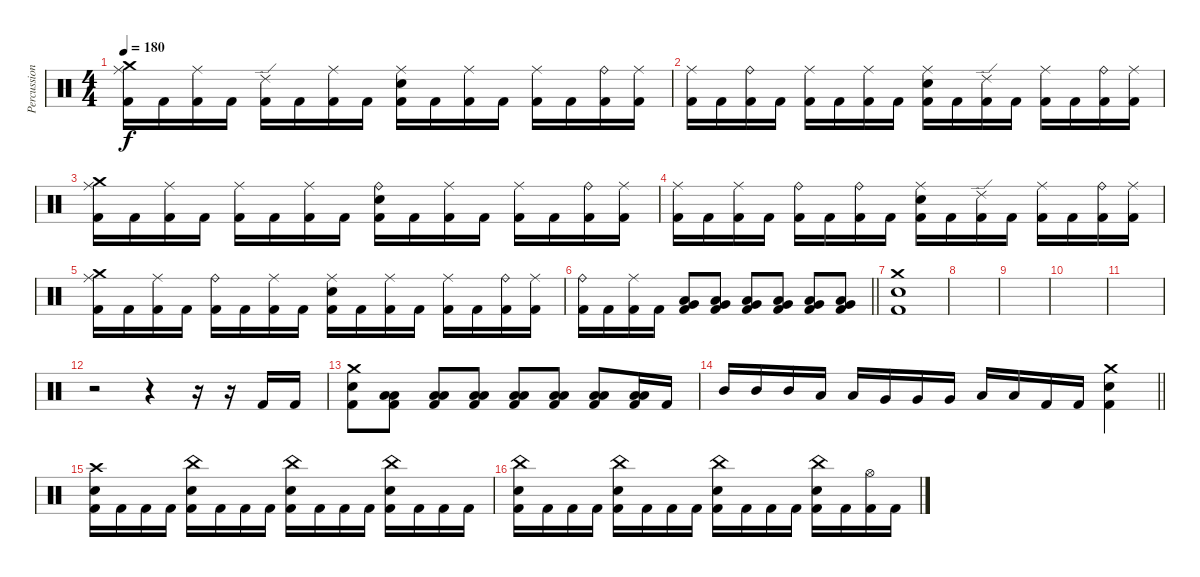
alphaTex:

\track ("Percussions" "Percussion") {instrument percussion}
\staff {score}
\articulation defaults
\ts (4 4)
\tempo 180
\clef neutral
\ks c
("Ride (middle)" "Crash medium (hit)" "Kick (hit) 2").16{dy f} "Kick (hit) 2".16 ("Ride (middle)" "Kick (hit) 2").16 "Kick (hit) 2".16 ("Ride (edge) 2" "Kick (hit) 2").16 "Kick (hit) 2".16 ("Ride (middle)" "Kick (hit) 2").16 "Kick (hit) 2".16 ("Ride (middle)" "Electric Snare (hit)" "Kick (hit) 2").16 "Kick (hit) 2".16 ("Ride (middle)" "Kick (hit) 2").16 "Kick (hit) 2".16 ("Ride (middle)" "Kick (hit) 2").16 "Kick (hit) 2".16 ("Ride (bell)" "Kick (hit) 2").16 ("Ride (middle)" "Kick (hit) 2").16 |
("Ride (middle)" "Kick (hit) 2").16 "Kick (hit) 2".16 ("Ride (bell)" "Kick (hit) 2").16 "Kick (hit) 2".16 ("Ride (middle)" "Kick (hit) 2").16 "Kick (hit) 2".16 ("Ride (middle)" "Kick (hit) 2").16 "Kick (hit) 2".16 ("Ride (middle)" "Electric Snare (hit)" "Kick (hit) 2").16 "Kick (hit) 2".16 ("Ride (edge) 2" "Kick (hit) 2").16 "Kick (hit) 2".16 ("Ride (middle)" "Kick (hit) 2").16 "Kick (hit) 2".16 ("Ride (bell)" "Kick (hit) 2").16 ("Ride (middle)" "Kick (hit) 2").16 |
("Ride (middle)" "Crash medium (hit)" "Kick (hit) 2").16 "Kick (hit) 2".16 ("Ride (middle)" "Kick (hit) 2").16 "Kick (hit) 2".16 ("Ride (middle)" "Kick (hit) 2").16 "Kick (hit) 2".16 ("Ride (middle)" "Kick (hit) 2").16 "Kick (hit) 2".16 ("Ride (bell)" "Electric Snare (hit)" "Kick (hit) 2").16 "Kick (hit) 2".16 ("Ride (middle)" "Kick (hit) 2").16 "Kick (hit) 2".16 ("Ride (middle)" "Kick (hit) 2").16 "Kick (hit) 2".16 ("Ride (bell)" "Kick (hit) 2").16 ("Ride (middle)" "Kick (hit) 2").16 |
("Ride (middle)" "Kick (hit) 2").16 "Kick (hit) 2".16 ("Ride (middle)" "Kick (hit) 2").16 "Kick (hit) 2".16 ("Ride (bell)" "Kick (hit) 2").16 "Kick (hit) 2".16 ("Ride (bell)" "Kick (hit) 2").16 "Kick (hit) 2".16 ("Ride (middle)" "Electric Snare (hit)" "Kick (hit) 2").16 "Kick (hit) 2".16 ("Ride (edge) 2" "Kick (hit) 2").16 "Kick (hit) 2".16 ("Ride (middle)" "Kick (hit) 2").16 "Kick (hit) 2".16 ("Ride (bell)" "Kick (hit) 2").16 ("Ride (middle)" "Kick (hit) 2").16 |
("Ride (middle)" "Crash medium (hit)" "Kick (hit) 2").16 "Kick (hit) 2".16 ("Ride (middle)" "Kick (hit) 2").16 "Kick (hit) 2".16 ("Ride (bell)" "Kick (hit) 2").16 "Kick (hit) 2".16 ("Ride (middle)" "Kick (hit) 2").16 "Kick (hit) 2".16 ("Ride (middle)" "Electric Snare (hit)" "Kick (hit) 2").16 "Kick (hit) 2".16 ("Ride (middle)" "Kick (hit) 2").16 "Kick (hit) 2".16 ("Ride (middle)" "Kick (hit) 2").16 "Kick (hit) 2".16 ("Ride (bell)" "Kick (hit) 2").16 ("Ride (middle)" "Kick (hit) 2").16 |
\barLineRight lightlight
("Ride (bell)" "Kick (hit) 2").16 "Kick (hit) 2".16 ("Ride (middle)" "Kick (hit) 2").16 "Kick (hit) 2".16 ("Low Tom (hit)" "Very Low Tom (hit)" "Kick (hit) 2").8 ("Low Tom (hit)" "Very Low Tom (hit)" "Kick (hit) 2").8 ("Low Tom (hit)" "Very Low Tom (hit)" "Kick (hit) 2").8 ("Low Tom (hit)" "Very Low Tom (hit)" "Kick (hit) 2").8 ("Low Tom (hit)" "Very Low Tom (hit)" "Kick (hit) 2").8 ("Low Tom (hit)" "Very Low Tom (hit)" "Kick (hit) 2").8 |
("Crash medium (hit)" "Electric Snare (hit)" "Kick (hit) 2").1 |
|
|
|
|
r.2 r.4 r.16 r.16 "Kick (hit) 2".16 "Kick (hit) 2".16 |
("Crash medium (hit)" "Electric Snare (hit)" "Kick (hit) 2").8 ("Low Tom (hit)" "Low Floor Tom (hit)" "Kick (hit) 2").8 ("Low Tom (hit)" "Low Floor Tom (hit)" "Kick (hit) 2").8 ("Low Tom (hit)" "Low Floor Tom (hit)" "Kick (hit) 2").8 ("Low Tom (hit)" "Low Floor Tom (hit)" "Kick (hit) 2").8 ("Low Tom (hit)" "Low Floor Tom (hit)" "Kick (hit) 2").8 ("Low Tom (hit)" "Low Floor Tom (hit)" "Kick (hit) 2").8 ("Low Tom (hit)" "Low Floor Tom (hit)" "Kick (hit) 2").16 "Kick (hit) 2".16 |
\barLineRight lightlight "Mid Tom (hit)".16 "Mid Tom (hit)".16 "Mid Tom (hit)".16 "Low Tom (hit)".16 "Low Tom (hit)".16 "Very Low Tom (hit)".16 "Very Low Tom (hit)".16 "Very Low Tom (hit)".16 "Low Floor Tom (hit)".16 "Low Floor Tom (hit)".16 "Kick (hit) 2".16 "Kick (hit) 2".16
("Crash medium (hit)" "Electric Snare (hit)" "Kick (hit) 2").4 |
("Crash high (hit)" "Electric Snare (hit)" "Kick (hit) 2").16 "Kick (hit) 2".16 "Kick (hit) 2".16 "Kick (hit) 2".16 ("China (hit)" "Electric Snare (hit)" "Kick (hit) 2").16 "Kick (hit) 2".16 "Kick (hit) 2".16 "Kick (hit) 2".16 ("China (hit)" "Electric Snare (hit)" "Kick (hit) 2").16 "Kick (hit) 2".16 "Kick (hit) 2".16 "Kick (hit) 2".16 ("China (hit)" "Electric Snare (hit)" "Kick (hit) 2").16 "Kick (hit) 2".16 "Kick (hit) 2".16 "Kick (hit) 2".16 |
("China (hit)" "Electric Snare (hit)" "Kick (hit) 2").16 "Kick (hit) 2".16 "Kick (hit) 2".16 "Kick (hit) 2".16 ("China (hit)" "Electric Snare (hit)" "Kick (hit) 2").16 "Kick (hit) 2".16 "Kick (hit) 2".16 "Kick (hit) 2".16 ("China (hit)" "Electric Snare (hit)" "Kick (hit) 2").16 "Kick (hit) 2".16 "Kick (hit) 2".16 "Kick (hit) 2".16 ("China (hit)" "Electric Snare (hit)" "Kick (hit) 2").16 "Kick (hit) 2".16 ("Hi-Hat (open)" "Kick (hit) 2").16 "Kick (hit) 2".16
